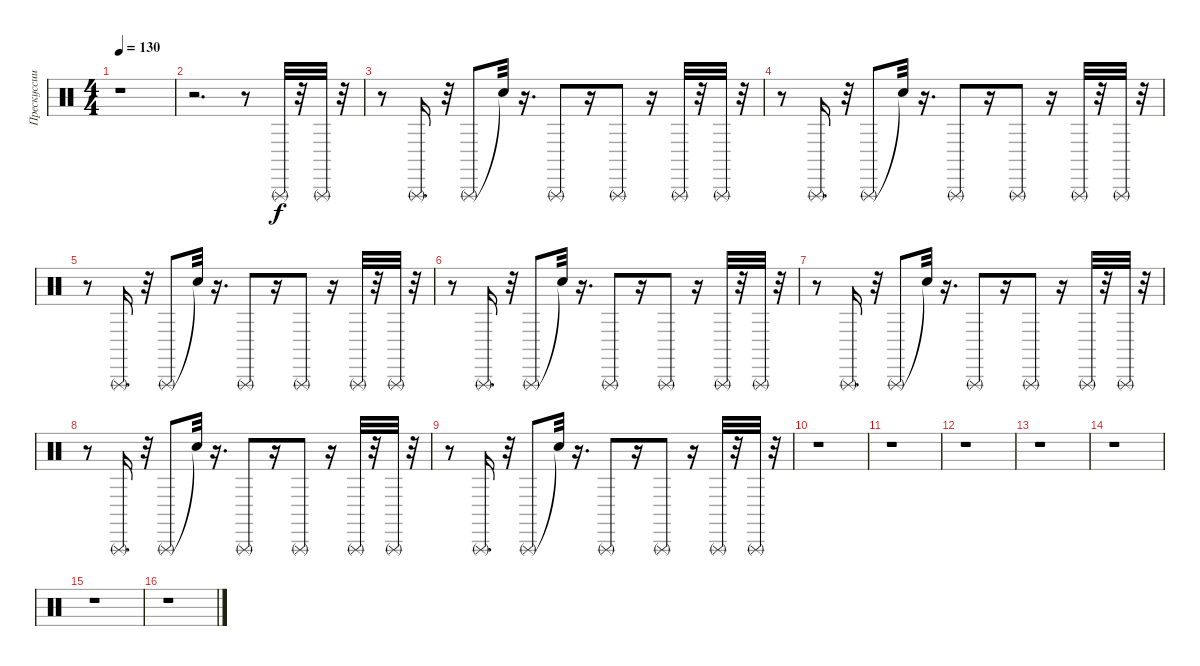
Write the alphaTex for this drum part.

\track ("Прескуссии 1" "Прескуссии") {instrument percussion}
\staff {score}
\articulation defaults
\ts (4 4)
\tempo 130
\clef neutral
\ks c
r.1{dy f} |
r.2{d} r.8 "Triangle (rnute)".32 r.32 "Triangle (rnute)".32 r.32 |
r.8 "Triangle (rnute)".16{d} r.32 "Triangle (rnute)".8 "Snare (hit)"{t}.32 r.16{d} "Triangle (rnute)".8 r.16 "Triangle (rnute)".8 r.16 "Triangle (rnute)".32 r.32 "Triangle (rnute)".32 r.32 |
r.8 "Triangle (rnute)".16{d} r.32 "Triangle (rnute)".8 "Snare (hit)"{t}.32 r.16{d} "Triangle (rnute)".8 r.16 "Triangle (rnute)".8 r.16 "Triangle (rnute)".32 r.32 "Triangle (rnute)".32 r.32 |
r.8 "Triangle (rnute)".16{d} r.32 "Triangle (rnute)".8 "Snare (hit)"{t}.32 r.16{d} "Triangle (rnute)".8 r.16 "Triangle (rnute)".8 r.16 "Triangle (rnute)".32 r.32 "Triangle (rnute)".32 r.32 |
r.8 "Triangle (rnute)".16{d} r.32 "Triangle (rnute)".8 "Snare (hit)"{t}.32 r.16{d} "Triangle (rnute)".8 r.16 "Triangle (rnute)".8 r.16 "Triangle (rnute)".32 r.32 "Triangle (rnute)".32 r.32 |
r.8 "Triangle (rnute)".16{d} r.32 "Triangle (rnute)".8 "Snare (hit)"{t}.32 r.16{d} "Triangle (rnute)".8 r.16 "Triangle (rnute)".8 r.16 "Triangle (rnute)".32 r.32 "Triangle (rnute)".32 r.32 |
r.8 "Triangle (rnute)".16{d} r.32 "Triangle (rnute)".8 "Snare (hit)"{t}.32 r.16{d} "Triangle (rnute)".8 r.16 "Triangle (rnute)".8 r.16 "Triangle (rnute)".32 r.32 "Triangle (rnute)".32 r.32 |
r.8 "Triangle (rnute)".16{d} r.32 "Triangle (rnute)".8 "Snare (hit)"{t}.32 r.16{d} "Triangle (rnute)".8 r.16 "Triangle (rnute)".8 r.16 "Triangle (rnute)".32 r.32 "Triangle (rnute)".32 r.32 |
r.1 |
r.1 |
r.1 |
r.1 |
r.1 |
r.1 |
r.1
